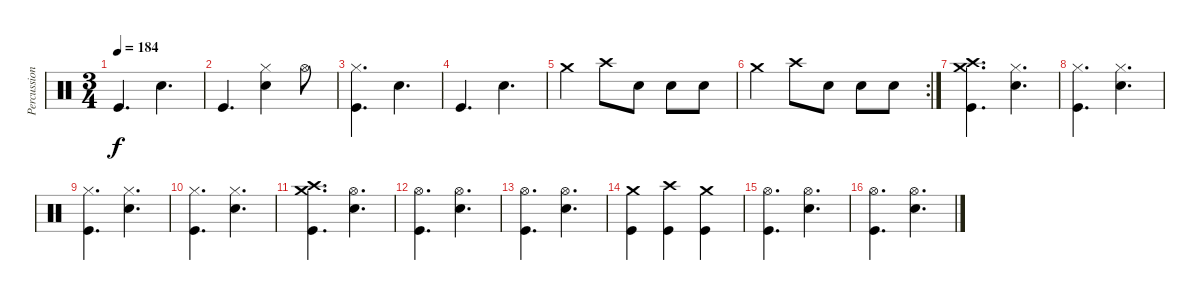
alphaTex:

\track ("Percussion" "Percussion") {instrument percussion}
\staff {score}
\articulation defaults
\ts (3 4)
\tempo 184
\clef neutral
\ks c "Kick (hit)".4{d dy f} "Snare (hit) 2".4{d}
|
"Kick (hit)".4{d} ("Hi-Hat (closed)" "Snare (hit) 2").4 "Hi-Hat (open)".8 |
("Hi-Hat (closed)" "Kick (hit)").4{d} "Snare (hit) 2".4{d} |
"Kick (hit)".4{d} "Snare (hit) 2".4{d} |
"Crash medium (hit)".4 "Crash high (hit)".8 "Snare (hit) 2".8 "Snare (hit) 2".8 "Snare (hit) 2".8 |
\rc 2 "Crash medium (hit)".4 "Crash high (hit)".8 "Snare (hit) 2".8 "Snare (hit) 2".8 "Snare (hit) 2".8
|
("Crash medium (hit)" "Crash high (hit)" "Kick (hit)").4{d} ("Snare (hit) 2" "Hi-Hat (closed)").4{d} |
("Hi-Hat (closed)" "Kick (hit)").4{d} ("Snare (hit) 2" "Hi-Hat (closed)").4{d} |
("Hi-Hat (closed)" "Kick (hit)").4{d} ("Snare (hit) 2" "Hi-Hat (closed)").4{d} |
("Hi-Hat (closed)" "Kick (hit)").4{d} ("Snare (hit) 2" "Hi-Hat (closed)").4{d} |
("Crash medium (hit)" "Crash high (hit)" "Kick (hit)").4{d} ("Hi-Hat (open)" "Snare (hit) 2").4{d} |
("Hi-Hat (open)" "Kick (hit)").4{d} ("Hi-Hat (open)" "Snare (hit) 2").4{d} |
("Hi-Hat (open)" "Kick (hit)").4{d} ("Hi-Hat (open)" "Snare (hit) 2").4{d} |
("Crash medium (hit)" "Kick (hit)").4 ("Crash high (hit)" "Kick (hit)").4 ("Crash medium (hit)" "Kick (hit)").4 |
("Hi-Hat (open)" "Kick (hit)").4{d} ("Hi-Hat (open)" "Snare (hit) 2").4{d} |
("Hi-Hat (open)" "Kick (hit)").4{d} ("Hi-Hat (open)" "Snare (hit) 2").4{d}
